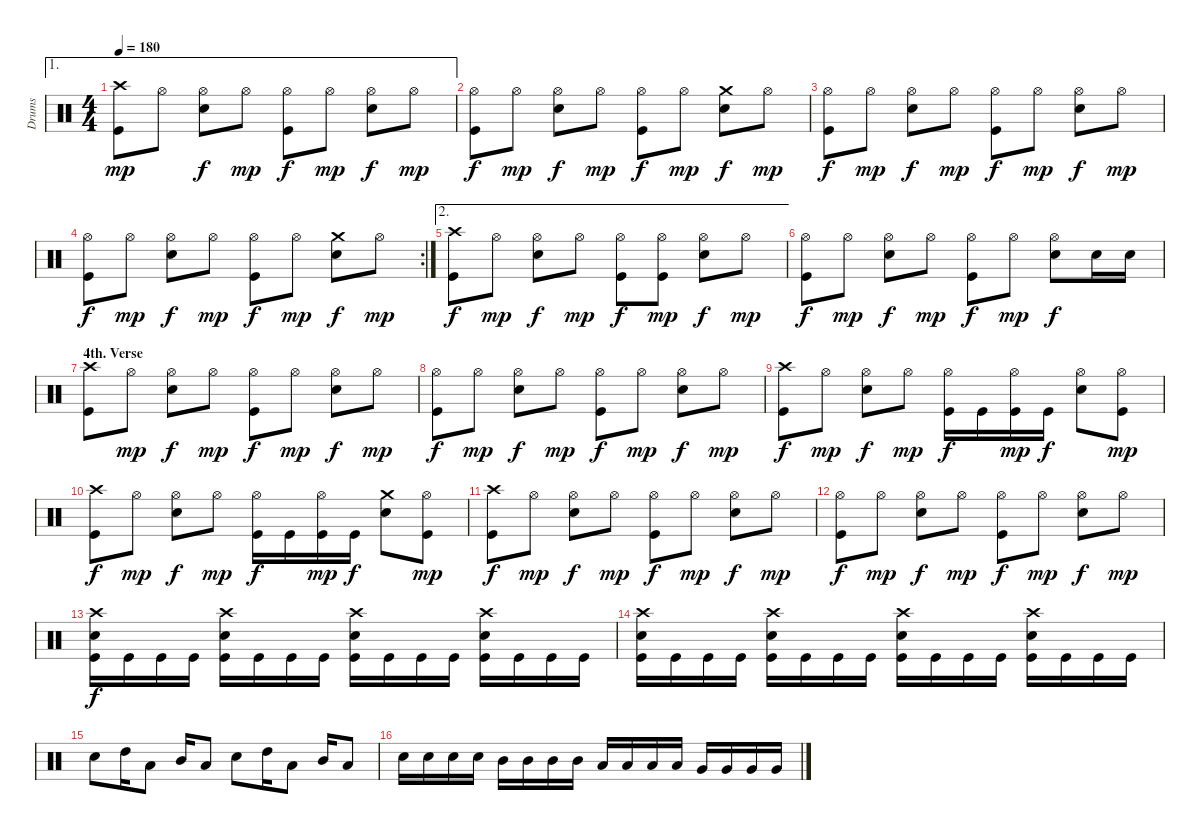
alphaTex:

\track ("Drums" "Drums") {instrument percussion}
\staff {score}
\articulation defaults
\ae 1
\ts (4 4)
\tempo 180
\clef neutral
\ks c
("Crash high (hit)" "Kick (hit)").8{dy mp} "Hi-Hat (open)".8 ("Hi-Hat (open)" "Electric Snare (hit)").8{dy f} "Hi-Hat (open)".8{dy mp} ("Hi-Hat (open)" "Kick (hit)").8{dy f} "Hi-Hat (open)".8{dy mp} ("Hi-Hat (open)" "Electric Snare (hit)").8{dy f} "Hi-Hat (open)".8{dy mp} |
("Hi-Hat (open)" "Kick (hit)").8{dy f} "Hi-Hat (open)".8{dy mp} ("Hi-Hat (open)" "Electric Snare (hit)").8{dy f} "Hi-Hat (open)".8{dy mp} ("Hi-Hat (open)" "Kick (hit)").8{dy f} "Hi-Hat (open)".8{dy mp} ("Crash medium (hit)" "Electric Snare (hit)").8{dy f} "Hi-Hat (open)".8{dy mp} |
("Hi-Hat (open)" "Kick (hit)").8{dy f} "Hi-Hat (open)".8{dy mp} ("Hi-Hat (open)" "Electric Snare (hit)").8{dy f} "Hi-Hat (open)".8{dy mp} ("Hi-Hat (open)" "Kick (hit)").8{dy f} "Hi-Hat (open)".8{dy mp} ("Hi-Hat (open)" "Electric Snare (hit)").8{dy f} "Hi-Hat (open)".8{dy mp} |
\rc 2
("Hi-Hat (open)" "Kick (hit)").8{dy f} "Hi-Hat (open)".8{dy mp} ("Hi-Hat (open)" "Electric Snare (hit)").8{dy f} "Hi-Hat (open)".8{dy mp} ("Hi-Hat (open)" "Kick (hit)").8{dy f} "Hi-Hat (open)".8{dy mp} ("Crash medium (hit)" "Electric Snare (hit)").8{dy f} "Hi-Hat (open)".8{dy mp} |
\ae 2
("Crash high (hit)" "Kick (hit)").8{dy f} "Hi-Hat (open)".8{dy mp} ("Hi-Hat (open)" "Electric Snare (hit)").8{dy f} "Hi-Hat (open)".8{dy mp} ("Hi-Hat (open)" "Kick (hit)").8{dy f} ("Hi-Hat (open)" "Kick (hit)").8{dy mp} ("Hi-Hat (open)" "Electric Snare (hit)").8{dy f} "Hi-Hat (open)".8{dy mp} |
("Hi-Hat (open)" "Kick (hit)").8{dy f} "Hi-Hat (open)".8{dy mp} ("Hi-Hat (open)" "Electric Snare (hit)").8{dy f} "Hi-Hat (open)".8{dy mp} ("Hi-Hat (open)" "Kick (hit)").8{dy f} "Hi-Hat (open)".8{dy mp} ("Hi-Hat (open)" "Electric Snare (hit)").8{dy f} "Electric Snare (hit)".16 "Electric Snare (hit)".16 |
\section ("" "4th. Verse")
("Crash high (hit)" "Kick (hit)").8 "Hi-Hat (open)".8{dy mp} ("Hi-Hat (open)" "Electric Snare (hit)").8{dy f} "Hi-Hat (open)".8{dy mp} ("Hi-Hat (open)" "Kick (hit)").8{dy f} "Hi-Hat (open)".8{dy mp} ("Hi-Hat (open)" "Electric Snare (hit)").8{dy f} "Hi-Hat (open)".8{dy mp} |
("Hi-Hat (open)" "Kick (hit)").8{dy f} "Hi-Hat (open)".8{dy mp} ("Hi-Hat (open)" "Electric Snare (hit)").8{dy f} "Hi-Hat (open)".8{dy mp} ("Hi-Hat (open)" "Kick (hit)").8{dy f} "Hi-Hat (open)".8{dy mp} ("Hi-Hat (open)" "Electric Snare (hit)").8{dy f} "Hi-Hat (open)".8{dy mp} |
("Crash high (hit)" "Kick (hit)").8{dy f} "Hi-Hat (open)".8{dy mp} ("Hi-Hat (open)" "Electric Snare (hit)").8{dy f} "Hi-Hat (open)".8{dy mp} ("Hi-Hat (open)" "Kick (hit)").16{dy f} "Kick (hit)".16 ("Hi-Hat (open)" "Kick (hit)").16{dy mp} "Kick (hit)".16{dy f} ("Hi-Hat (open)" "Electric Snare (hit)").8 ("Hi-Hat (open)" "Kick (hit)").8{dy mp} |
("Crash high (hit)" "Kick (hit)").8{dy f} "Hi-Hat (open)".8{dy mp} ("Hi-Hat (open)" "Electric Snare (hit)").8{dy f} "Hi-Hat (open)".8{dy mp} ("Hi-Hat (open)" "Kick (hit)").16{dy f} "Kick (hit)".16 ("Hi-Hat (open)" "Kick (hit)").16{dy mp} "Kick (hit)".16{dy f} ("Crash medium (hit)" "Electric Snare (hit)").8 ("Hi-Hat (open)" "Kick (hit)").8{dy mp} |
("Crash high (hit)" "Kick (hit)").8{dy f} "Hi-Hat (open)".8{dy mp} ("Hi-Hat (open)" "Electric Snare (hit)").8{dy f} "Hi-Hat (open)".8{dy mp} ("Hi-Hat (open)" "Kick (hit)").8{dy f} "Hi-Hat (open)".8{dy mp} ("Hi-Hat (open)" "Electric Snare (hit)").8{dy f} "Hi-Hat (open)".8{dy mp} |
("Hi-Hat (open)" "Kick (hit)").8{dy f} "Hi-Hat (open)".8{dy mp} ("Hi-Hat (open)" "Electric Snare (hit)").8{dy f} "Hi-Hat (open)".8{dy mp} ("Hi-Hat (open)" "Kick (hit)").8{dy f} "Hi-Hat (open)".8{dy mp} ("Hi-Hat (open)" "Electric Snare (hit)").8{dy f} "Hi-Hat (open)".8{dy mp} |
("Crash high (hit)" "Electric Snare (hit)" "Kick (hit)").16{dy f} "Kick (hit)".16 "Kick (hit)".16 "Kick (hit)".16 ("Crash high (hit)" "Electric Snare (hit)" "Kick (hit)").16 "Kick (hit)".16 "Kick (hit)".16 "Kick (hit)".16 ("Crash high (hit)" "Electric Snare (hit)" "Kick (hit)").16 "Kick (hit)".16 "Kick (hit)".16 "Kick (hit)".16 ("Crash high (hit)" "Electric Snare (hit)" "Kick (hit)").16 "Kick (hit)".16 "Kick (hit)".16 "Kick (hit)".16 |
("Crash high (hit)" "Electric Snare (hit)" "Kick (hit)").16 "Kick (hit)".16 "Kick (hit)".16 "Kick (hit)".16 ("Crash high (hit)" "Electric Snare (hit)" "Kick (hit)").16 "Kick (hit)".16 "Kick (hit)".16 "Kick (hit)".16 ("Crash high (hit)" "Electric Snare (hit)" "Kick (hit)").16 "Kick (hit)".16 "Kick (hit)".16 "Kick (hit)".16 ("Crash high (hit)" "Electric Snare (hit)" "Kick (hit)").16 "Kick (hit)".16 "Kick (hit)".16 "Kick (hit)".16 |
"Electric Snare (hit)".8 "High Tom (hit)".16 "Low Tom (hit)".8 "Mid Tom (hit)".16 "Low Tom (hit)".8 "Electric Snare (hit)".8 "High Tom (hit)".16 "Low Tom (hit)".8 "Mid Tom (hit)".16 "Low Tom (hit)".8 |
"Electric Snare (hit)".16 "Electric Snare (hit)".16 "Electric Snare (hit)".16 "Electric Snare (hit)".16 "Mid Tom (hit)".16 "Mid Tom (hit)".16 "Mid Tom (hit)".16 "Mid Tom (hit)".16 "Low Tom (hit)".16 "Low Tom (hit)".16 "Low Tom (hit)".16 "Low Tom (hit)".16 "Very Low Tom (hit)".16 "Very Low Tom (hit)".16 "Very Low Tom (hit)".16 "Very Low Tom (hit)".16
